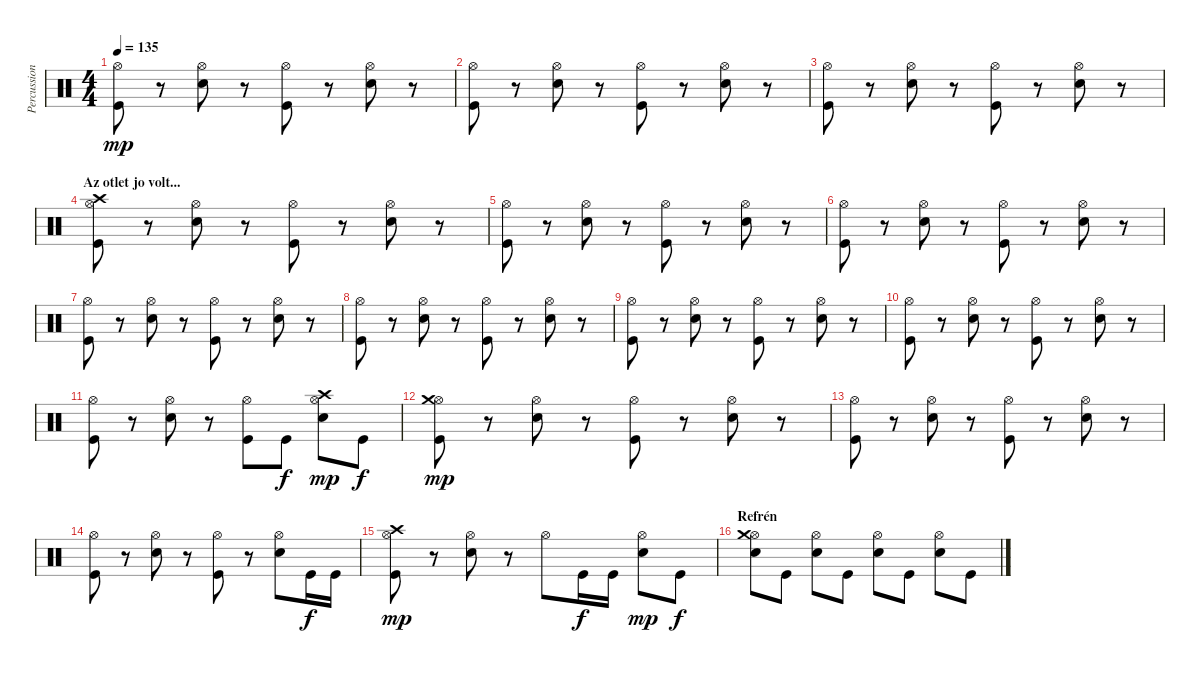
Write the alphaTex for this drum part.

\track ("Percussion" "Percussion") {instrument percussion}
\staff {score}
\articulation defaults
\ts (4 4)
\tempo 135
\clef neutral
\ks c
("Hi-Hat (open)" "Kick (hit)").8{dy mp} r.8 ("Hi-Hat (open)" "Snare (hit) 2").8 r.8 ("Hi-Hat (open)" "Kick (hit)").8 r.8 ("Hi-Hat (open)" "Snare (hit) 2").8 r.8 |
("Hi-Hat (open)" "Kick (hit)").8 r.8 ("Hi-Hat (open)" "Snare (hit) 2").8 r.8 ("Hi-Hat (open)" "Kick (hit)").8 r.8 ("Hi-Hat (open)" "Snare (hit) 2").8 r.8 |
("Hi-Hat (open)" "Kick (hit)").8 r.8 ("Hi-Hat (open)" "Snare (hit) 2").8 r.8 ("Hi-Hat (open)" "Kick (hit)").8 r.8 ("Hi-Hat (open)" "Snare (hit) 2").8 r.8 |
\section ("" "Az otlet jo volt...")
("Hi-Hat (open)" "Crash high (hit)" "Kick (hit)").8 r.8 ("Hi-Hat (open)" "Snare (hit) 2").8 r.8 ("Hi-Hat (open)" "Kick (hit)").8 r.8 ("Hi-Hat (open)" "Snare (hit) 2").8 r.8 |
("Hi-Hat (open)" "Kick (hit)").8 r.8 ("Hi-Hat (open)" "Snare (hit) 2").8 r.8 ("Hi-Hat (open)" "Kick (hit)").8 r.8 ("Hi-Hat (open)" "Snare (hit) 2").8 r.8 |
("Hi-Hat (open)" "Kick (hit)").8 r.8 ("Hi-Hat (open)" "Snare (hit) 2").8 r.8 ("Hi-Hat (open)" "Kick (hit)").8 r.8 ("Hi-Hat (open)" "Snare (hit) 2").8 r.8 |
("Hi-Hat (open)" "Kick (hit)").8 r.8 ("Hi-Hat (open)" "Snare (hit) 2").8 r.8 ("Hi-Hat (open)" "Kick (hit)").8 r.8 ("Hi-Hat (open)" "Snare (hit) 2").8 r.8 |
("Hi-Hat (open)" "Kick (hit)").8 r.8 ("Hi-Hat (open)" "Snare (hit) 2").8 r.8 ("Hi-Hat (open)" "Kick (hit)").8 r.8 ("Hi-Hat (open)" "Snare (hit) 2").8 r.8 |
("Hi-Hat (open)" "Kick (hit)").8 r.8 ("Hi-Hat (open)" "Snare (hit) 2").8 r.8 ("Hi-Hat (open)" "Kick (hit)").8 r.8 ("Hi-Hat (open)" "Snare (hit) 2").8 r.8 |
("Hi-Hat (open)" "Kick (hit)").8 r.8 ("Hi-Hat (open)" "Snare (hit) 2").8 r.8 ("Hi-Hat (open)" "Kick (hit)").8 r.8 ("Hi-Hat (open)" "Snare (hit) 2").8 r.8 |
("Hi-Hat (open)" "Kick (hit)").8 r.8 ("Hi-Hat (open)" "Snare (hit) 2").8 r.8 ("Hi-Hat (open)" "Kick (hit)").8 "Kick (hit)".8{dy f} ("Hi-Hat (open)" "Crash high (hit)" "Snare (hit) 2").8{dy mp} "Kick (hit)".8{dy f} |
("Hi-Hat (open)" "Crash medium (hit)" "Kick (hit)").8{dy mp} r.8 ("Hi-Hat (open)" "Snare (hit) 2").8 r.8 ("Hi-Hat (open)" "Kick (hit)").8 r.8 ("Hi-Hat (open)" "Snare (hit) 2").8 r.8 |
("Hi-Hat (open)" "Kick (hit)").8 r.8 ("Hi-Hat (open)" "Snare (hit) 2").8 r.8 ("Hi-Hat (open)" "Kick (hit)").8 r.8 ("Hi-Hat (open)" "Snare (hit) 2").8 r.8 |
("Hi-Hat (open)" "Kick (hit)").8 r.8 ("Hi-Hat (open)" "Snare (hit) 2").8 r.8 ("Hi-Hat (open)" "Kick (hit)").8 r.8 ("Hi-Hat (open)" "Snare (hit) 2").8 "Kick (hit)".16{dy f} "Kick (hit)".16 |
("Hi-Hat (open)" "Crash high (hit)" "Kick (hit)").8{dy mp} r.8 ("Hi-Hat (open)" "Snare (hit) 2").8 r.8 "Hi-Hat (open)".8 "Kick (hit)".16{dy f} "Kick (hit)".16 ("Hi-Hat (open)" "Snare (hit) 2").8{dy mp} "Kick (hit)".8{dy f} |
\section ("" "Refrén")
("Hi-Hat (open)" "Crash medium (hit)" "Snare (hit) 2").8 "Kick (hit)".8 ("Hi-Hat (open)" "Snare (hit) 2").8 "Kick (hit)".8 ("Hi-Hat (open)" "Snare (hit) 2").8 "Kick (hit)".8 ("Hi-Hat (open)" "Snare (hit) 2").8 "Kick (hit)".8
